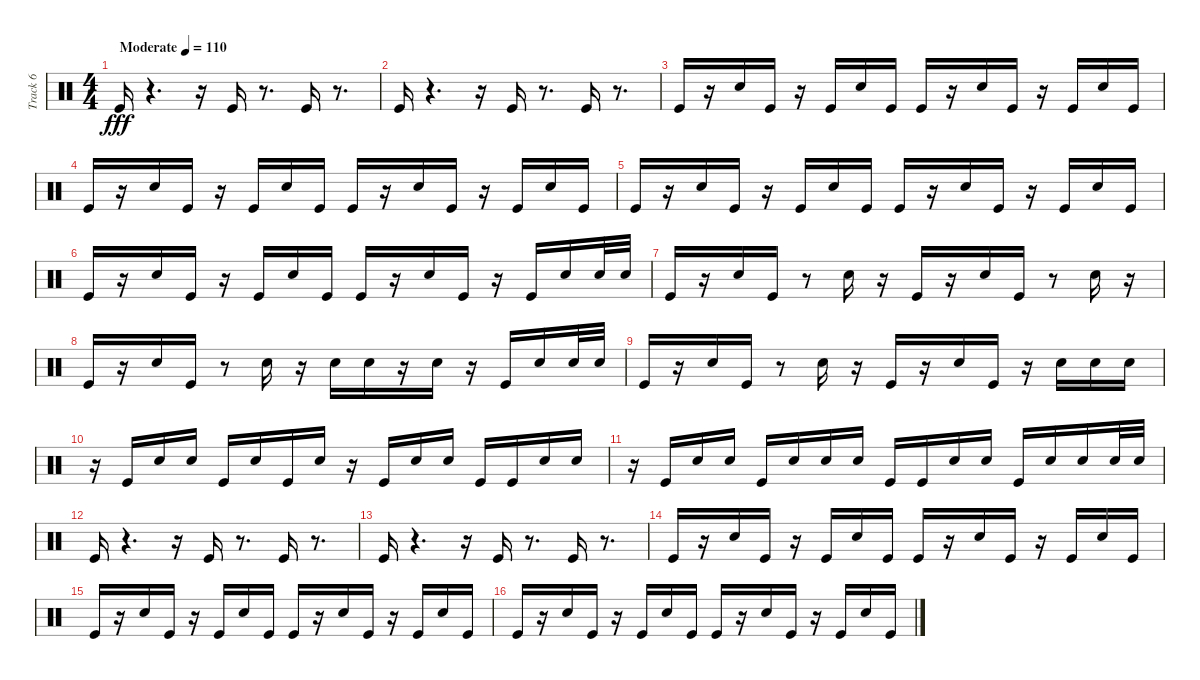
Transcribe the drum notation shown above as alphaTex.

\track ("Track 6" "Track 6") {instrument percussion}
\staff {score}
\articulation defaults
\ts (4 4)
\tempo (110 "Moderate")
\clef neutral
\ks c "Kick (hit)".16{dy fff}
r.4{d} r.16 "Kick (hit)".16 r.8{d} "Kick (hit)".16 r.8{d} |
"Kick (hit)".16 r.4{d} r.16 "Kick (hit)".16 r.8{d} "Kick (hit)".16 r.8{d} |
"Kick (hit)".16 r.16 "Snare (hit) 2".16 "Kick (hit)".16 r.16 "Kick (hit)".16 "Snare (hit) 2".16 "Kick (hit)".16 "Kick (hit)".16 r.16 "Snare (hit) 2".16 "Kick (hit)".16 r.16 "Kick (hit)".16 "Snare (hit) 2".16 "Kick (hit)".16 |
"Kick (hit)".16 r.16 "Snare (hit) 2".16 "Kick (hit)".16 r.16 "Kick (hit)".16 "Snare (hit) 2".16 "Kick (hit)".16 "Kick (hit)".16 r.16 "Snare (hit) 2".16 "Kick (hit)".16 r.16 "Kick (hit)".16 "Snare (hit) 2".16 "Kick (hit)".16 |
"Kick (hit)".16 r.16 "Snare (hit) 2".16 "Kick (hit)".16 r.16 "Kick (hit)".16 "Snare (hit) 2".16 "Kick (hit)".16 "Kick (hit)".16 r.16 "Snare (hit) 2".16 "Kick (hit)".16 r.16 "Kick (hit)".16 "Snare (hit) 2".16 "Kick (hit)".16 |
"Kick (hit)".16 r.16 "Snare (hit) 2".16 "Kick (hit)".16 r.16 "Kick (hit)".16 "Snare (hit) 2".16 "Kick (hit)".16 "Kick (hit)".16 r.16 "Snare (hit) 2".16 "Kick (hit)".16 r.16 "Kick (hit)".16 "Snare (hit) 2".16 "Snare (hit) 2".32 "Snare (hit) 2".32 |
"Kick (hit)".16 r.16 "Snare (hit) 2".16 "Kick (hit)".16 r.8 "Snare (hit) 2".16 r.16 "Kick (hit)".16 r.16 "Snare (hit) 2".16 "Kick (hit)".16 r.8 "Snare (hit) 2".16 r.16 |
"Kick (hit)".16 r.16 "Snare (hit) 2".16 "Kick (hit)".16 r.8 "Snare (hit) 2".16 r.16 "Snare (hit) 2".16 "Snare (hit) 2".16 r.16 "Snare (hit) 2".16 r.16 "Kick (hit)".16 "Snare (hit) 2".16 "Snare (hit) 2".32 "Snare (hit) 2".32 |
"Kick (hit)".16 r.16 "Snare (hit) 2".16 "Kick (hit)".16 r.8 "Snare (hit) 2".16 r.16 "Kick (hit)".16 r.16 "Snare (hit) 2".16 "Kick (hit)".16 r.16 "Snare (hit) 2".16 "Snare (hit) 2".16 "Snare (hit) 2".16 |
r.16 "Kick (hit)".16 "Snare (hit) 2".16 "Snare (hit) 2".16 "Kick (hit)".16 "Snare (hit) 2".16 "Kick (hit)".16 "Snare (hit) 2".16 r.16 "Kick (hit)".16 "Snare (hit) 2".16 "Snare (hit) 2".16 "Kick (hit)".16 "Kick (hit)".16 "Snare (hit) 2".16 "Snare (hit) 2".16 |
r.16 "Kick (hit)".16 "Snare (hit) 2".16 "Snare (hit) 2".16 "Kick (hit)".16 "Snare (hit) 2".16 "Snare (hit) 2".16 "Snare (hit) 2".16 "Kick (hit)".16 "Kick (hit)".16 "Snare (hit) 2".16 "Snare (hit) 2".16 "Kick (hit)".16 "Snare (hit) 2".16 "Snare (hit) 2".16 "Snare (hit) 2".32 "Snare (hit) 2".32 |
"Kick (hit)".16 r.4{d} r.16 "Kick (hit)".16 r.8{d} "Kick (hit)".16 r.8{d} |
"Kick (hit)".16 r.4{d} r.16 "Kick (hit)".16 r.8{d} "Kick (hit)".16 r.8{d} |
"Kick (hit)".16 r.16 "Snare (hit) 2".16 "Kick (hit)".16 r.16 "Kick (hit)".16 "Snare (hit) 2".16 "Kick (hit)".16 "Kick (hit)".16 r.16 "Snare (hit) 2".16 "Kick (hit)".16 r.16 "Kick (hit)".16 "Snare (hit) 2".16 "Kick (hit)".16 |
"Kick (hit)".16 r.16 "Snare (hit) 2".16 "Kick (hit)".16 r.16 "Kick (hit)".16 "Snare (hit) 2".16 "Kick (hit)".16 "Kick (hit)".16 r.16 "Snare (hit) 2".16 "Kick (hit)".16 r.16 "Kick (hit)".16 "Snare (hit) 2".16 "Kick (hit)".16 |
"Kick (hit)".16 r.16 "Snare (hit) 2".16 "Kick (hit)".16 r.16 "Kick (hit)".16 "Snare (hit) 2".16 "Kick (hit)".16 "Kick (hit)".16 r.16 "Snare (hit) 2".16 "Kick (hit)".16 r.16 "Kick (hit)".16 "Snare (hit) 2".16 "Kick (hit)".16
